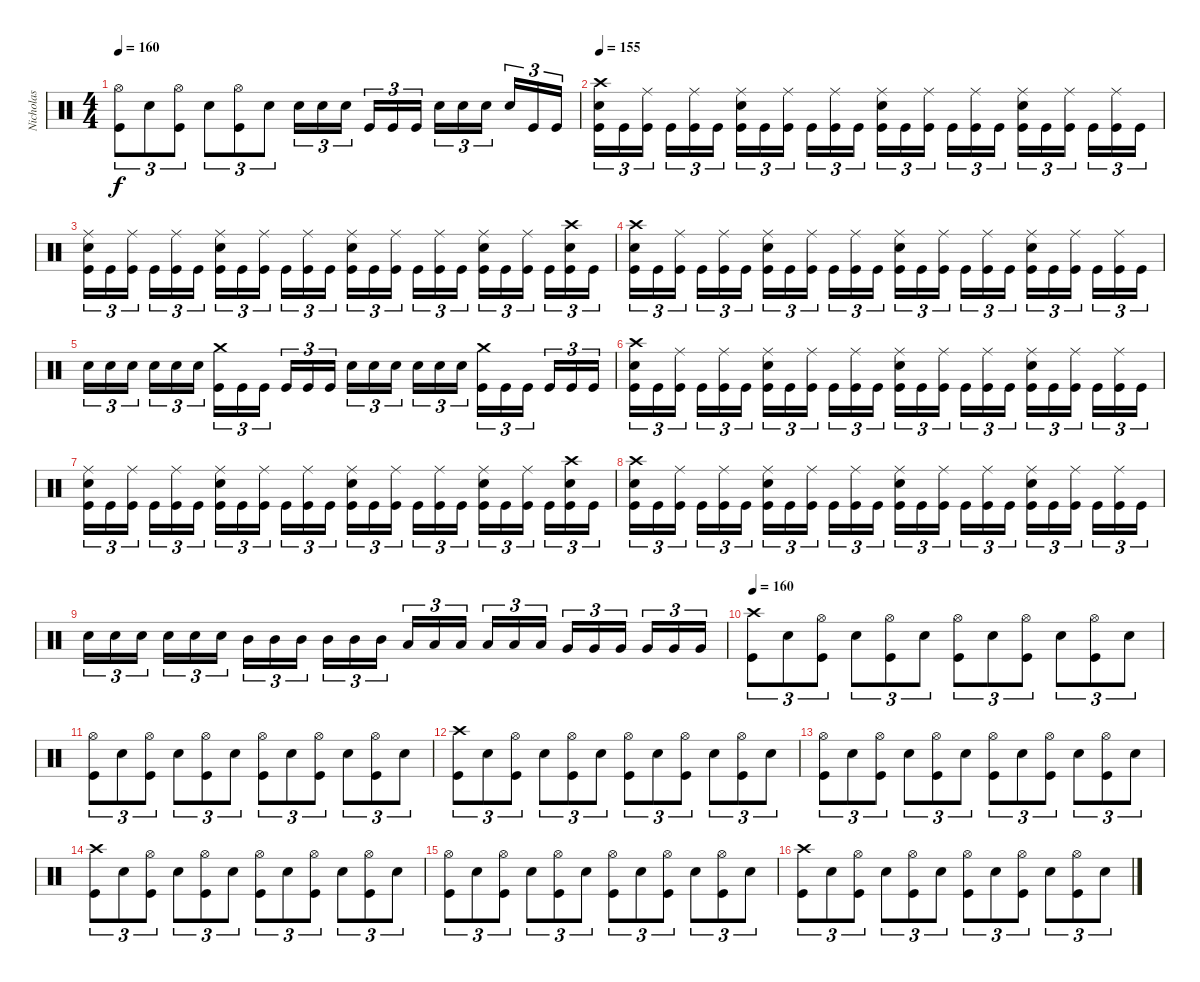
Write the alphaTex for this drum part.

\track ("Nicholas" "Nicholas") {instrument percussion}
\staff {score}
\articulation defaults
\ts (4 4)
\tempo 160
\clef neutral
\ks c
("Hi-Hat (open)" "Kick (hit)").8{tu (3 2) dy f} "Electric Snare (hit)".8{tu (3 2)} ("Hi-Hat (open)" "Kick (hit)").8{tu (3 2)} "Electric Snare (hit)".8{tu (3 2)} ("Hi-Hat (open)" "Kick (hit)").8{tu (3 2)} "Electric Snare (hit)".8{tu (3 2)} "Electric Snare (hit)".16{tu (3 2)} "Electric Snare (hit)".16{tu (3 2)} "Electric Snare (hit)".16{tu (3 2)} "Kick (hit)".16{tu (3 2)} "Kick (hit)".16{tu (3 2)} "Kick (hit)".16{tu (3 2)} "Electric Snare (hit)".16{tu (3 2)} "Electric Snare (hit)".16{tu (3 2)} "Electric Snare (hit)".16{tu (3 2)} "Electric Snare (hit)".16{tu (3 2)} "Kick (hit)".16{tu (3 2)} "Kick (hit)".16{tu (3 2)} |
\tempo 155
("Crash high (hit)" "Electric Snare (hit)" "Kick (hit)").16{tu (3 2)} "Kick (hit)".16{tu (3 2)} ("Ride (middle)" "Kick (hit)").16{tu (3 2)} "Kick (hit)".16{tu (3 2)} ("Ride (middle)" "Kick (hit)").16{tu (3 2)} "Kick (hit)".16{tu (3 2)} ("Ride (middle)" "Electric Snare (hit)" "Kick (hit)").16{tu (3 2)} "Kick (hit)".16{tu (3 2)} ("Ride (middle)" "Kick (hit)").16{tu (3 2)} "Kick (hit)".16{tu (3 2)} ("Ride (middle)" "Kick (hit)").16{tu (3 2)} "Kick (hit)".16{tu (3 2)} ("Ride (middle)" "Electric Snare (hit)" "Kick (hit)").16{tu (3 2)} "Kick (hit)".16{tu (3 2)} ("Ride (middle)" "Kick (hit)").16{tu (3 2)} "Kick (hit)".16{tu (3 2)} ("Ride (middle)" "Kick (hit)").16{tu (3 2)} "Kick (hit)".16{tu (3 2)} ("Ride (middle)" "Electric Snare (hit)" "Kick (hit)").16{tu (3 2)} "Kick (hit)".16{tu (3 2)} ("Ride (middle)" "Kick (hit)").16{tu (3 2)} "Kick (hit)".16{tu (3 2)} ("Ride (middle)" "Kick (hit)").16{tu (3 2)} "Kick (hit)".16{tu (3 2)} |
("Ride (middle)" "Electric Snare (hit)" "Kick (hit)").16{tu (3 2)} "Kick (hit)".16{tu (3 2)} ("Ride (middle)" "Kick (hit)").16{tu (3 2)} "Kick (hit)".16{tu (3 2)} ("Ride (middle)" "Kick (hit)").16{tu (3 2)} "Kick (hit)".16{tu (3 2)} ("Ride (middle)" "Electric Snare (hit)" "Kick (hit)").16{tu (3 2)} "Kick (hit)".16{tu (3 2)} ("Ride (middle)" "Kick (hit)").16{tu (3 2)} "Kick (hit)".16{tu (3 2)} ("Ride (middle)" "Kick (hit)").16{tu (3 2)} "Kick (hit)".16{tu (3 2)} ("Ride (middle)" "Electric Snare (hit)" "Kick (hit)").16{tu (3 2)} "Kick (hit)".16{tu (3 2)} ("Ride (middle)" "Kick (hit)").16{tu (3 2)} "Kick (hit)".16{tu (3 2)} ("Ride (middle)" "Kick (hit)").16{tu (3 2)} "Kick (hit)".16{tu (3 2)} ("Ride (middle)" "Electric Snare (hit)" "Kick (hit)").16{tu (3 2)} "Kick (hit)".16{tu (3 2)} ("Ride (middle)" "Kick (hit)").16{tu (3 2)} "Kick (hit)".16{tu (3 2)} ("Crash high (hit)" "Electric Snare (hit)" "Kick (hit)").16{tu (3 2)} "Kick (hit)".16{tu (3 2)} |
("Crash high (hit)" "Electric Snare (hit)" "Kick (hit)").16{tu (3 2)} "Kick (hit)".16{tu (3 2)} ("Ride (middle)" "Kick (hit)").16{tu (3 2)} "Kick (hit)".16{tu (3 2)} ("Ride (middle)" "Kick (hit)").16{tu (3 2)} "Kick (hit)".16{tu (3 2)} ("Ride (middle)" "Electric Snare (hit)" "Kick (hit)").16{tu (3 2)} "Kick (hit)".16{tu (3 2)} ("Ride (middle)" "Kick (hit)").16{tu (3 2)} "Kick (hit)".16{tu (3 2)} ("Ride (middle)" "Kick (hit)").16{tu (3 2)} "Kick (hit)".16{tu (3 2)} ("Ride (middle)" "Electric Snare (hit)" "Kick (hit)").16{tu (3 2)} "Kick (hit)".16{tu (3 2)} ("Ride (middle)" "Kick (hit)").16{tu (3 2)} "Kick (hit)".16{tu (3 2)} ("Ride (middle)" "Kick (hit)").16{tu (3 2)} "Kick (hit)".16{tu (3 2)} ("Ride (middle)" "Electric Snare (hit)" "Kick (hit)").16{tu (3 2)} "Kick (hit)".16{tu (3 2)} ("Ride (middle)" "Kick (hit)").16{tu (3 2)} "Kick (hit)".16{tu (3 2)} ("Ride (middle)" "Kick (hit)").16{tu (3 2)} "Kick (hit)".16{tu (3 2)} |
"Electric Snare (hit)".16{tu (3 2)} "Electric Snare (hit)".16{tu (3 2)} "Electric Snare (hit)".16{tu (3 2)} "Electric Snare (hit)".16{tu (3 2)} "Electric Snare (hit)".16{tu (3 2)} "Electric Snare (hit)".16{tu (3 2)} ("Crash medium (hit)" "Kick (hit)").16{tu (3 2)} "Kick (hit)".16{tu (3 2)} "Kick (hit)".16{tu (3 2)} "Kick (hit)".16{tu (3 2)} "Kick (hit)".16{tu (3 2)} "Kick (hit)".16{tu (3 2)} "Electric Snare (hit)".16{tu (3 2)} "Electric Snare (hit)".16{tu (3 2)} "Electric Snare (hit)".16{tu (3 2)} "Electric Snare (hit)".16{tu (3 2)} "Electric Snare (hit)".16{tu (3 2)} "Electric Snare (hit)".16{tu (3 2)} ("Crash medium (hit)" "Kick (hit)").16{tu (3 2)} "Kick (hit)".16{tu (3 2)} "Kick (hit)".16{tu (3 2)} "Kick (hit)".16{tu (3 2)} "Kick (hit)".16{tu (3 2)} "Kick (hit)".16{tu (3 2)} |
("Crash high (hit)" "Electric Snare (hit)" "Kick (hit)").16{tu (3 2)} "Kick (hit)".16{tu (3 2)} ("Ride (middle)" "Kick (hit)").16{tu (3 2)} "Kick (hit)".16{tu (3 2)} ("Ride (middle)" "Kick (hit)").16{tu (3 2)} "Kick (hit)".16{tu (3 2)} ("Ride (middle)" "Electric Snare (hit)" "Kick (hit)").16{tu (3 2)} "Kick (hit)".16{tu (3 2)} ("Ride (middle)" "Kick (hit)").16{tu (3 2)} "Kick (hit)".16{tu (3 2)} ("Ride (middle)" "Kick (hit)").16{tu (3 2)} "Kick (hit)".16{tu (3 2)} ("Ride (middle)" "Electric Snare (hit)" "Kick (hit)").16{tu (3 2)} "Kick (hit)".16{tu (3 2)} ("Ride (middle)" "Kick (hit)").16{tu (3 2)} "Kick (hit)".16{tu (3 2)} ("Ride (middle)" "Kick (hit)").16{tu (3 2)} "Kick (hit)".16{tu (3 2)} ("Ride (middle)" "Electric Snare (hit)" "Kick (hit)").16{tu (3 2)} "Kick (hit)".16{tu (3 2)} ("Ride (middle)" "Kick (hit)").16{tu (3 2)} "Kick (hit)".16{tu (3 2)} ("Ride (middle)" "Kick (hit)").16{tu (3 2)} "Kick (hit)".16{tu (3 2)} |
("Ride (middle)" "Electric Snare (hit)" "Kick (hit)").16{tu (3 2)} "Kick (hit)".16{tu (3 2)} ("Ride (middle)" "Kick (hit)").16{tu (3 2)} "Kick (hit)".16{tu (3 2)} ("Ride (middle)" "Kick (hit)").16{tu (3 2)} "Kick (hit)".16{tu (3 2)} ("Ride (middle)" "Electric Snare (hit)" "Kick (hit)").16{tu (3 2)} "Kick (hit)".16{tu (3 2)} ("Ride (middle)" "Kick (hit)").16{tu (3 2)} "Kick (hit)".16{tu (3 2)} ("Ride (middle)" "Kick (hit)").16{tu (3 2)} "Kick (hit)".16{tu (3 2)} ("Ride (middle)" "Electric Snare (hit)" "Kick (hit)").16{tu (3 2)} "Kick (hit)".16{tu (3 2)} ("Ride (middle)" "Kick (hit)").16{tu (3 2)} "Kick (hit)".16{tu (3 2)} ("Ride (middle)" "Kick (hit)").16{tu (3 2)} "Kick (hit)".16{tu (3 2)} ("Ride (middle)" "Electric Snare (hit)" "Kick (hit)").16{tu (3 2)} "Kick (hit)".16{tu (3 2)} ("Ride (middle)" "Kick (hit)").16{tu (3 2)} "Kick (hit)".16{tu (3 2)} ("Crash high (hit)" "Electric Snare (hit)" "Kick (hit)").16{tu (3 2)} "Kick (hit)".16{tu (3 2)} |
("Crash high (hit)" "Electric Snare (hit)" "Kick (hit)").16{tu (3 2)} "Kick (hit)".16{tu (3 2)} ("Ride (middle)" "Kick (hit)").16{tu (3 2)} "Kick (hit)".16{tu (3 2)} ("Ride (middle)" "Kick (hit)").16{tu (3 2)} "Kick (hit)".16{tu (3 2)} ("Ride (middle)" "Electric Snare (hit)" "Kick (hit)").16{tu (3 2)} "Kick (hit)".16{tu (3 2)} ("Ride (middle)" "Kick (hit)").16{tu (3 2)} "Kick (hit)".16{tu (3 2)} ("Ride (middle)" "Kick (hit)").16{tu (3 2)} "Kick (hit)".16{tu (3 2)} ("Ride (middle)" "Electric Snare (hit)" "Kick (hit)").16{tu (3 2)} "Kick (hit)".16{tu (3 2)} ("Ride (middle)" "Kick (hit)").16{tu (3 2)} "Kick (hit)".16{tu (3 2)} ("Ride (middle)" "Kick (hit)").16{tu (3 2)} "Kick (hit)".16{tu (3 2)} ("Ride (middle)" "Electric Snare (hit)" "Kick (hit)").16{tu (3 2)} "Kick (hit)".16{tu (3 2)} ("Ride (middle)" "Kick (hit)").16{tu (3 2)} "Kick (hit)".16{tu (3 2)} ("Ride (middle)" "Kick (hit)").16{tu (3 2)} "Kick (hit)".16{tu (3 2)} |
"Electric Snare (hit)".16{tu (3 2)} "Electric Snare (hit)".16{tu (3 2)} "Electric Snare (hit)".16{tu (3 2)} "Electric Snare (hit)".16{tu (3 2)} "Electric Snare (hit)".16{tu (3 2)} "Electric Snare (hit)".16{tu (3 2)} "Mid Tom (hit)".16{tu (3 2)} "Mid Tom (hit)".16{tu (3 2)} "Mid Tom (hit)".16{tu (3 2)} "Mid Tom (hit)".16{tu (3 2)} "Mid Tom (hit)".16{tu (3 2)} "Mid Tom (hit)".16{tu (3 2)} "Low Tom (hit)".16{tu (3 2)} "Low Tom (hit)".16{tu (3 2)} "Low Tom (hit)".16{tu (3 2)} "Low Tom (hit)".16{tu (3 2)} "Low Tom (hit)".16{tu (3 2)} "Low Tom (hit)".16{tu (3 2)} "Very Low Tom (hit)".16{tu (3 2)} "Very Low Tom (hit)".16{tu (3 2)} "Very Low Tom (hit)".16{tu (3 2)} "Very Low Tom (hit)".16{tu (3 2)} "Very Low Tom (hit)".16{tu (3 2)} "Very Low Tom (hit)".16{tu (3 2)} |
\tempo 160
("Crash high (hit)" "Kick (hit)").8{tu (3 2)} "Electric Snare (hit)".8{tu (3 2)} ("Hi-Hat (open)" "Kick (hit)").8{tu (3 2)} "Electric Snare (hit)".8{tu (3 2)} ("Hi-Hat (open)" "Kick (hit)").8{tu (3 2)} "Electric Snare (hit)".8{tu (3 2)} ("Hi-Hat (open)" "Kick (hit)").8{tu (3 2)} "Electric Snare (hit)".8{tu (3 2)} ("Hi-Hat (open)" "Kick (hit)").8{tu (3 2)} "Electric Snare (hit)".8{tu (3 2)} ("Hi-Hat (open)" "Kick (hit)").8{tu (3 2)} "Electric Snare (hit)".8{tu (3 2)} |
("Hi-Hat (open)" "Kick (hit)").8{tu (3 2)} "Electric Snare (hit)".8{tu (3 2)} ("Hi-Hat (open)" "Kick (hit)").8{tu (3 2)} "Electric Snare (hit)".8{tu (3 2)} ("Hi-Hat (open)" "Kick (hit)").8{tu (3 2)} "Electric Snare (hit)".8{tu (3 2)} ("Hi-Hat (open)" "Kick (hit)").8{tu (3 2)} "Electric Snare (hit)".8{tu (3 2)} ("Hi-Hat (open)" "Kick (hit)").8{tu (3 2)} "Electric Snare (hit)".8{tu (3 2)} ("Hi-Hat (open)" "Kick (hit)").8{tu (3 2)} "Electric Snare (hit)".8{tu (3 2)} |
("Crash high (hit)" "Kick (hit)").8{tu (3 2)} "Electric Snare (hit)".8{tu (3 2)} ("Hi-Hat (open)" "Kick (hit)").8{tu (3 2)} "Electric Snare (hit)".8{tu (3 2)} ("Hi-Hat (open)" "Kick (hit)").8{tu (3 2)} "Electric Snare (hit)".8{tu (3 2)} ("Hi-Hat (open)" "Kick (hit)").8{tu (3 2)} "Electric Snare (hit)".8{tu (3 2)} ("Hi-Hat (open)" "Kick (hit)").8{tu (3 2)} "Electric Snare (hit)".8{tu (3 2)} ("Hi-Hat (open)" "Kick (hit)").8{tu (3 2)} "Electric Snare (hit)".8{tu (3 2)} |
("Hi-Hat (open)" "Kick (hit)").8{tu (3 2)} "Electric Snare (hit)".8{tu (3 2)} ("Hi-Hat (open)" "Kick (hit)").8{tu (3 2)} "Electric Snare (hit)".8{tu (3 2)} ("Hi-Hat (open)" "Kick (hit)").8{tu (3 2)} "Electric Snare (hit)".8{tu (3 2)} ("Hi-Hat (open)" "Kick (hit)").8{tu (3 2)} "Electric Snare (hit)".8{tu (3 2)} ("Hi-Hat (open)" "Kick (hit)").8{tu (3 2)} "Electric Snare (hit)".8{tu (3 2)} ("Hi-Hat (open)" "Kick (hit)").8{tu (3 2)} "Electric Snare (hit)".8{tu (3 2)} |
("Crash high (hit)" "Kick (hit)").8{tu (3 2)} "Electric Snare (hit)".8{tu (3 2)} ("Hi-Hat (open)" "Kick (hit)").8{tu (3 2)} "Electric Snare (hit)".8{tu (3 2)} ("Hi-Hat (open)" "Kick (hit)").8{tu (3 2)} "Electric Snare (hit)".8{tu (3 2)} ("Hi-Hat (open)" "Kick (hit)").8{tu (3 2)} "Electric Snare (hit)".8{tu (3 2)} ("Hi-Hat (open)" "Kick (hit)").8{tu (3 2)} "Electric Snare (hit)".8{tu (3 2)} ("Hi-Hat (open)" "Kick (hit)").8{tu (3 2)} "Electric Snare (hit)".8{tu (3 2)} |
("Hi-Hat (open)" "Kick (hit)").8{tu (3 2)} "Electric Snare (hit)".8{tu (3 2)} ("Hi-Hat (open)" "Kick (hit)").8{tu (3 2)} "Electric Snare (hit)".8{tu (3 2)} ("Hi-Hat (open)" "Kick (hit)").8{tu (3 2)} "Electric Snare (hit)".8{tu (3 2)} ("Hi-Hat (open)" "Kick (hit)").8{tu (3 2)} "Electric Snare (hit)".8{tu (3 2)} ("Hi-Hat (open)" "Kick (hit)").8{tu (3 2)} "Electric Snare (hit)".8{tu (3 2)} ("Hi-Hat (open)" "Kick (hit)").8{tu (3 2)} "Electric Snare (hit)".8{tu (3 2)} |
("Crash high (hit)" "Kick (hit)").8{tu (3 2)} "Electric Snare (hit)".8{tu (3 2)} ("Hi-Hat (open)" "Kick (hit)").8{tu (3 2)} "Electric Snare (hit)".8{tu (3 2)} ("Hi-Hat (open)" "Kick (hit)").8{tu (3 2)} "Electric Snare (hit)".8{tu (3 2)} ("Hi-Hat (open)" "Kick (hit)").8{tu (3 2)} "Electric Snare (hit)".8{tu (3 2)} ("Hi-Hat (open)" "Kick (hit)").8{tu (3 2)} "Electric Snare (hit)".8{tu (3 2)} ("Hi-Hat (open)" "Kick (hit)").8{tu (3 2)} "Electric Snare (hit)".8{tu (3 2)}
